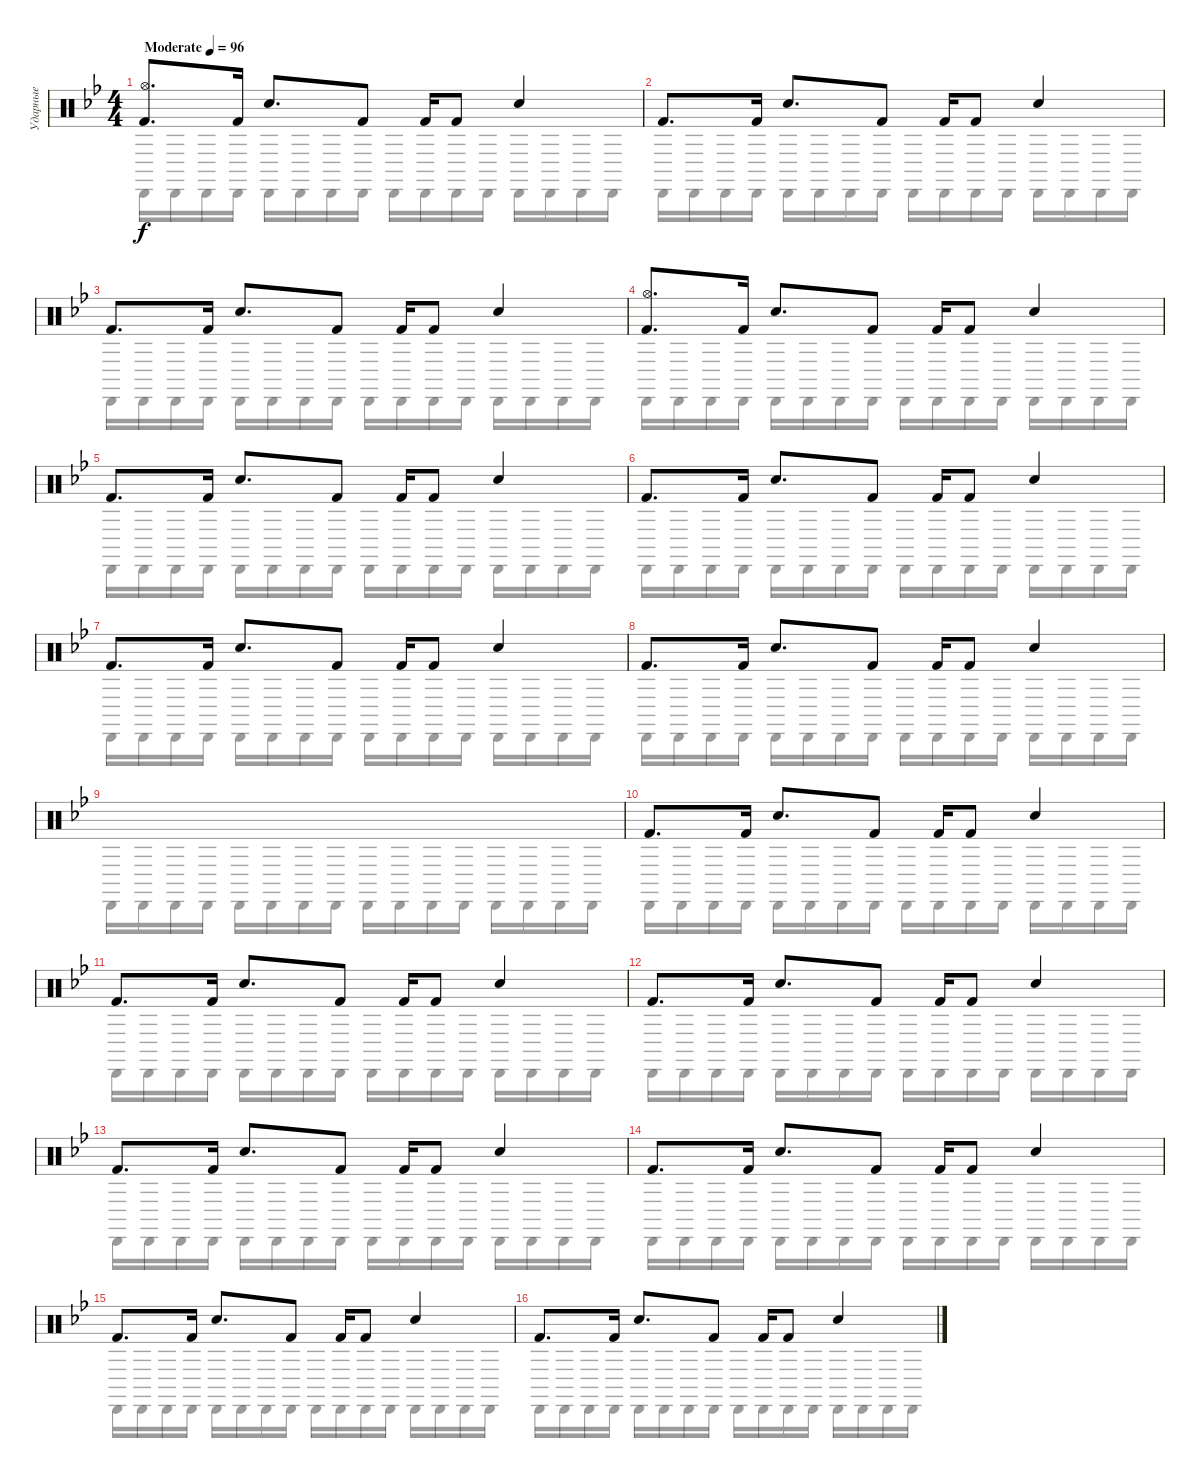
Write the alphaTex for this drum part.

\track ("Ударные" "Ударные") {instrument percussion}
\staff {score}
\articulation defaults
\voice
\ts (4 4)
\tempo (96 "Moderate")
\clef neutral
\ks bb
("Kick (hit) 2" "Hi-Hat (open)").8{d dy f} "Kick (hit) 2".16 "Hand Clap (hit)".8{d} "Kick (hit) 2".8 "Kick (hit) 2".16 "Kick (hit) 2".8 "Hand Clap (hit)".4 |
"Kick (hit) 2".8{d} "Kick (hit) 2".16 "Hand Clap (hit)".8{d} "Kick (hit) 2".8 "Kick (hit) 2".16 "Kick (hit) 2".8 "Hand Clap (hit)".4 |
"Kick (hit) 2".8{d} "Kick (hit) 2".16 "Hand Clap (hit)".8{d} "Kick (hit) 2".8 "Kick (hit) 2".16 "Kick (hit) 2".8 "Hand Clap (hit)".4 |
("Kick (hit) 2" "Hi-Hat (open)").8{d} "Kick (hit) 2".16 "Hand Clap (hit)".8{d} "Kick (hit) 2".8 "Kick (hit) 2".16 "Kick (hit) 2".8 "Hand Clap (hit)".4 |
"Kick (hit) 2".8{d} "Kick (hit) 2".16 "Hand Clap (hit)".8{d} "Kick (hit) 2".8 "Kick (hit) 2".16 "Kick (hit) 2".8 "Hand Clap (hit)".4 |
"Kick (hit) 2".8{d} "Kick (hit) 2".16 "Hand Clap (hit)".8{d} "Kick (hit) 2".8 "Kick (hit) 2".16 "Kick (hit) 2".8 "Hand Clap (hit)".4 |
"Kick (hit) 2".8{d} "Kick (hit) 2".16 "Hand Clap (hit)".8{d} "Kick (hit) 2".8 "Kick (hit) 2".16 "Kick (hit) 2".8 "Hand Clap (hit)".4 |
"Kick (hit) 2".8{d} "Kick (hit) 2".16 "Hand Clap (hit)".8{d} "Kick (hit) 2".8 "Kick (hit) 2".16 "Kick (hit) 2".8 "Hand Clap (hit)".4 |
|
"Kick (hit) 2".8{d} "Kick (hit) 2".16 "Hand Clap (hit)".8{d} "Kick (hit) 2".8 "Kick (hit) 2".16 "Kick (hit) 2".8 "Hand Clap (hit)".4 |
"Kick (hit) 2".8{d} "Kick (hit) 2".16 "Hand Clap (hit)".8{d} "Kick (hit) 2".8 "Kick (hit) 2".16 "Kick (hit) 2".8 "Hand Clap (hit)".4 |
"Kick (hit) 2".8{d} "Kick (hit) 2".16 "Hand Clap (hit)".8{d} "Kick (hit) 2".8 "Kick (hit) 2".16 "Kick (hit) 2".8 "Hand Clap (hit)".4 |
"Kick (hit) 2".8{d} "Kick (hit) 2".16 "Hand Clap (hit)".8{d} "Kick (hit) 2".8 "Kick (hit) 2".16 "Kick (hit) 2".8 "Hand Clap (hit)".4 |
"Kick (hit) 2".8{d} "Kick (hit) 2".16 "Hand Clap (hit)".8{d} "Kick (hit) 2".8 "Kick (hit) 2".16 "Kick (hit) 2".8 "Hand Clap (hit)".4 |
"Kick (hit) 2".8{d} "Kick (hit) 2".16 "Hand Clap (hit)".8{d} "Kick (hit) 2".8 "Kick (hit) 2".16 "Kick (hit) 2".8 "Hand Clap (hit)".4 |
"Kick (hit) 2".8{d} "Kick (hit) 2".16 "Hand Clap (hit)".8{d} "Kick (hit) 2".8 "Kick (hit) 2".16 "Kick (hit) 2".8 "Hand Clap (hit)".4
\voice
\clef neutral
\ottava regular
\simile none
\ks bb "Cabasa (hit)".16{dy f} "Cabasa (hit)".16 "Cabasa (hit)".16 "Cabasa (hit)".16 "Cabasa (hit)".16 "Cabasa (hit)".16 "Cabasa (hit)".16 "Cabasa (hit)".16 "Cabasa (hit)".16 "Cabasa (hit)".16 "Cabasa (hit)".16 "Cabasa (hit)".16 "Cabasa (hit)".16 "Cabasa (hit)".16 "Cabasa (hit)".16 "Cabasa (hit)".16
|
"Cabasa (hit)".16 "Cabasa (hit)".16 "Cabasa (hit)".16 "Cabasa (hit)".16 "Cabasa (hit)".16 "Cabasa (hit)".16 "Cabasa (hit)".16 "Cabasa (hit)".16 "Cabasa (hit)".16 "Cabasa (hit)".16 "Cabasa (hit)".16 "Cabasa (hit)".16 "Cabasa (hit)".16 "Cabasa (hit)".16 "Cabasa (hit)".16 "Cabasa (hit)".16 |
"Cabasa (hit)".16 "Cabasa (hit)".16 "Cabasa (hit)".16 "Cabasa (hit)".16 "Cabasa (hit)".16 "Cabasa (hit)".16 "Cabasa (hit)".16 "Cabasa (hit)".16 "Cabasa (hit)".16 "Cabasa (hit)".16 "Cabasa (hit)".16 "Cabasa (hit)".16 "Cabasa (hit)".16 "Cabasa (hit)".16 "Cabasa (hit)".16 "Cabasa (hit)".16 |
"Cabasa (hit)".16 "Cabasa (hit)".16 "Cabasa (hit)".16 "Cabasa (hit)".16 "Cabasa (hit)".16 "Cabasa (hit)".16 "Cabasa (hit)".16 "Cabasa (hit)".16 "Cabasa (hit)".16 "Cabasa (hit)".16 "Cabasa (hit)".16 "Cabasa (hit)".16 "Cabasa (hit)".16 "Cabasa (hit)".16 "Cabasa (hit)".16 "Cabasa (hit)".16 |
"Cabasa (hit)".16 "Cabasa (hit)".16 "Cabasa (hit)".16 "Cabasa (hit)".16 "Cabasa (hit)".16 "Cabasa (hit)".16 "Cabasa (hit)".16 "Cabasa (hit)".16 "Cabasa (hit)".16 "Cabasa (hit)".16 "Cabasa (hit)".16 "Cabasa (hit)".16 "Cabasa (hit)".16 "Cabasa (hit)".16 "Cabasa (hit)".16 "Cabasa (hit)".16 |
"Cabasa (hit)".16 "Cabasa (hit)".16 "Cabasa (hit)".16 "Cabasa (hit)".16 "Cabasa (hit)".16 "Cabasa (hit)".16 "Cabasa (hit)".16 "Cabasa (hit)".16 "Cabasa (hit)".16 "Cabasa (hit)".16 "Cabasa (hit)".16 "Cabasa (hit)".16 "Cabasa (hit)".16 "Cabasa (hit)".16 "Cabasa (hit)".16 "Cabasa (hit)".16 |
"Cabasa (hit)".16 "Cabasa (hit)".16 "Cabasa (hit)".16 "Cabasa (hit)".16 "Cabasa (hit)".16 "Cabasa (hit)".16 "Cabasa (hit)".16 "Cabasa (hit)".16 "Cabasa (hit)".16 "Cabasa (hit)".16 "Cabasa (hit)".16 "Cabasa (hit)".16 "Cabasa (hit)".16 "Cabasa (hit)".16 "Cabasa (hit)".16 "Cabasa (hit)".16 |
"Cabasa (hit)".16 "Cabasa (hit)".16 "Cabasa (hit)".16 "Cabasa (hit)".16 "Cabasa (hit)".16 "Cabasa (hit)".16 "Cabasa (hit)".16 "Cabasa (hit)".16 "Cabasa (hit)".16 "Cabasa (hit)".16 "Cabasa (hit)".16 "Cabasa (hit)".16 "Cabasa (hit)".16 "Cabasa (hit)".16 "Cabasa (hit)".16 "Cabasa (hit)".16 |
"Cabasa (hit)".16 "Cabasa (hit)".16 "Cabasa (hit)".16 "Cabasa (hit)".16 "Cabasa (hit)".16 "Cabasa (hit)".16 "Cabasa (hit)".16 "Cabasa (hit)".16 "Cabasa (hit)".16 "Cabasa (hit)".16 "Cabasa (hit)".16 "Cabasa (hit)".16 "Cabasa (hit)".16 "Cabasa (hit)".16 "Cabasa (hit)".16 "Cabasa (hit)".16 |
"Cabasa (hit)".16 "Cabasa (hit)".16 "Cabasa (hit)".16 "Cabasa (hit)".16 "Cabasa (hit)".16 "Cabasa (hit)".16 "Cabasa (hit)".16 "Cabasa (hit)".16 "Cabasa (hit)".16 "Cabasa (hit)".16 "Cabasa (hit)".16 "Cabasa (hit)".16 "Cabasa (hit)".16 "Cabasa (hit)".16 "Cabasa (hit)".16 "Cabasa (hit)".16 |
"Cabasa (hit)".16 "Cabasa (hit)".16 "Cabasa (hit)".16 "Cabasa (hit)".16 "Cabasa (hit)".16 "Cabasa (hit)".16 "Cabasa (hit)".16 "Cabasa (hit)".16 "Cabasa (hit)".16 "Cabasa (hit)".16 "Cabasa (hit)".16 "Cabasa (hit)".16 "Cabasa (hit)".16 "Cabasa (hit)".16 "Cabasa (hit)".16 "Cabasa (hit)".16 |
"Cabasa (hit)".16 "Cabasa (hit)".16 "Cabasa (hit)".16 "Cabasa (hit)".16 "Cabasa (hit)".16 "Cabasa (hit)".16 "Cabasa (hit)".16 "Cabasa (hit)".16 "Cabasa (hit)".16 "Cabasa (hit)".16 "Cabasa (hit)".16 "Cabasa (hit)".16 "Cabasa (hit)".16 "Cabasa (hit)".16 "Cabasa (hit)".16 "Cabasa (hit)".16 |
"Cabasa (hit)".16 "Cabasa (hit)".16 "Cabasa (hit)".16 "Cabasa (hit)".16 "Cabasa (hit)".16 "Cabasa (hit)".16 "Cabasa (hit)".16 "Cabasa (hit)".16 "Cabasa (hit)".16 "Cabasa (hit)".16 "Cabasa (hit)".16 "Cabasa (hit)".16 "Cabasa (hit)".16 "Cabasa (hit)".16 "Cabasa (hit)".16 "Cabasa (hit)".16 |
"Cabasa (hit)".16 "Cabasa (hit)".16 "Cabasa (hit)".16 "Cabasa (hit)".16 "Cabasa (hit)".16 "Cabasa (hit)".16 "Cabasa (hit)".16 "Cabasa (hit)".16 "Cabasa (hit)".16 "Cabasa (hit)".16 "Cabasa (hit)".16 "Cabasa (hit)".16 "Cabasa (hit)".16 "Cabasa (hit)".16 "Cabasa (hit)".16 "Cabasa (hit)".16 |
"Cabasa (hit)".16 "Cabasa (hit)".16 "Cabasa (hit)".16 "Cabasa (hit)".16 "Cabasa (hit)".16 "Cabasa (hit)".16 "Cabasa (hit)".16 "Cabasa (hit)".16 "Cabasa (hit)".16 "Cabasa (hit)".16 "Cabasa (hit)".16 "Cabasa (hit)".16 "Cabasa (hit)".16 "Cabasa (hit)".16 "Cabasa (hit)".16 "Cabasa (hit)".16 |
"Cabasa (hit)".16 "Cabasa (hit)".16 "Cabasa (hit)".16 "Cabasa (hit)".16 "Cabasa (hit)".16 "Cabasa (hit)".16 "Cabasa (hit)".16 "Cabasa (hit)".16 "Cabasa (hit)".16 "Cabasa (hit)".16 "Cabasa (hit)".16 "Cabasa (hit)".16 "Cabasa (hit)".16 "Cabasa (hit)".16 "Cabasa (hit)".16 "Cabasa (hit)".16
